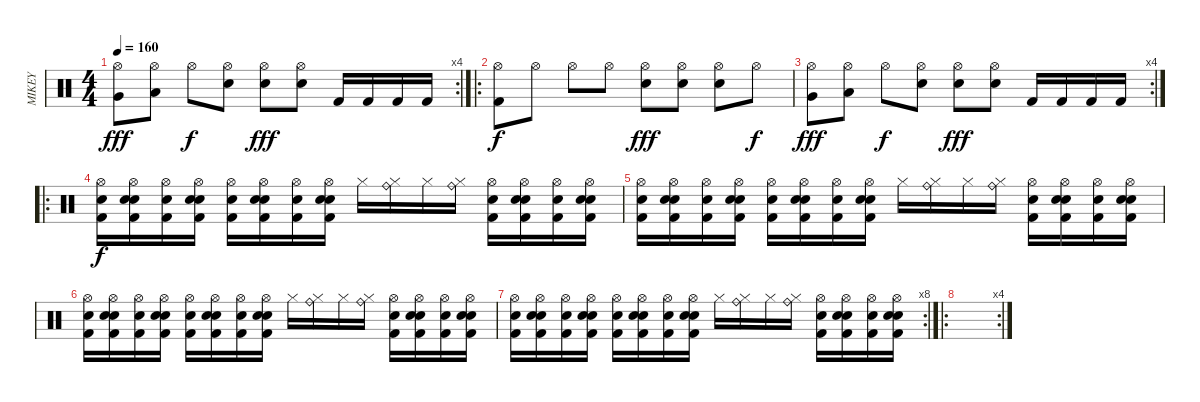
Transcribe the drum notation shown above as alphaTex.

\track ("MIKEY" "MIKEY") {instrument percussion}
\staff {score}
\articulation defaults
\rc 4
\ts (4 4)
\tempo 160
\clef neutral
\ks c
("Very Low Tom (hit)" "Hi-Hat (open)").8{dy fff} ("Low Tom (hit)" "Hi-Hat (open)").8 "Hi-Hat (open)".8{dy f} ("Snare (hit) 2" "Hi-Hat (open)").8 ("Snare (hit) 2" "Hi-Hat (open)").8{dy fff} ("Snare (hit) 2" "Hi-Hat (open)").8 "Kick (hit) 2".16 "Kick (hit) 2".16 "Kick (hit) 2".16 "Kick (hit) 2".16 |
\ro
("Kick (hit) 2" "Hi-Hat (open)").8{dy f} "Hi-Hat (open)".8 "Hi-Hat (open)".8 "Hi-Hat (open)".8 ("Snare (hit) 2" "Hi-Hat (open)").8{dy fff} ("Snare (hit) 2" "Hi-Hat (open)").8 ("Snare (hit) 2" "Hi-Hat (open)").8 "Hi-Hat (open)".8{dy f} |
\rc 4
("Very Low Tom (hit)" "Hi-Hat (open)").8{dy fff} ("Low Tom (hit)" "Hi-Hat (open)").8 "Hi-Hat (open)".8{dy f} ("Snare (hit) 2" "Hi-Hat (open)").8 ("Snare (hit) 2" "Hi-Hat (open)").8{dy fff} ("Snare (hit) 2" "Hi-Hat (open)").8 "Kick (hit) 2".16 "Kick (hit) 2".16 "Kick (hit) 2".16 "Kick (hit) 2".16 |
\ro
("Hi-Hat (open)" "Kick (hit) 2" "Electric Snare (hit)").16{dy f} ("Hi-Hat (open)" "Kick (hit) 2" "Snare (hit) 2" "Electric Snare (hit)").16 ("Hi-Hat (open)" "Kick (hit) 2" "Electric Snare (hit)").16 ("Hi-Hat (open)" "Kick (hit) 2" "Snare (hit) 2" "Electric Snare (hit)").16 ("Hi-Hat (open)" "Kick (hit) 2" "Electric Snare (hit)").16 ("Hi-Hat (open)" "Kick (hit) 2" "Snare (hit) 2" "Electric Snare (hit)").16 ("Hi-Hat (open)" "Kick (hit) 2" "Electric Snare (hit)").16 ("Hi-Hat (open)" "Kick (hit) 2" "Snare (hit) 2" "Electric Snare (hit)").16 "Hi-Hat (closed)".16 ("Ride (bell)" "Hi-Hat (closed)").16 "Hi-Hat (closed)".16 ("Ride (bell)" "Hi-Hat (closed)").16 ("Hi-Hat (open)" "Kick (hit) 2" "Electric Snare (hit)").16 ("Hi-Hat (open)" "Kick (hit) 2" "Snare (hit) 2" "Electric Snare (hit)").16 ("Hi-Hat (open)" "Kick (hit) 2" "Electric Snare (hit)").16 ("Hi-Hat (open)" "Kick (hit) 2" "Snare (hit) 2" "Electric Snare (hit)").16 |
("Hi-Hat (open)" "Kick (hit) 2" "Electric Snare (hit)").16 ("Hi-Hat (open)" "Kick (hit) 2" "Snare (hit) 2" "Electric Snare (hit)").16 ("Hi-Hat (open)" "Kick (hit) 2" "Electric Snare (hit)").16 ("Hi-Hat (open)" "Kick (hit) 2" "Snare (hit) 2" "Electric Snare (hit)").16 ("Hi-Hat (open)" "Kick (hit) 2" "Electric Snare (hit)").16 ("Hi-Hat (open)" "Kick (hit) 2" "Snare (hit) 2" "Electric Snare (hit)").16 ("Hi-Hat (open)" "Kick (hit) 2" "Electric Snare (hit)").16 ("Hi-Hat (open)" "Kick (hit) 2" "Snare (hit) 2" "Electric Snare (hit)").16 "Hi-Hat (closed)".16 ("Ride (bell)" "Hi-Hat (closed)").16 "Hi-Hat (closed)".16 ("Ride (bell)" "Hi-Hat (closed)").16 ("Hi-Hat (open)" "Kick (hit) 2" "Electric Snare (hit)").16 ("Hi-Hat (open)" "Kick (hit) 2" "Snare (hit) 2" "Electric Snare (hit)").16 ("Hi-Hat (open)" "Kick (hit) 2" "Electric Snare (hit)").16 ("Hi-Hat (open)" "Kick (hit) 2" "Snare (hit) 2" "Electric Snare (hit)").16 |
("Hi-Hat (open)" "Kick (hit) 2" "Electric Snare (hit)").16 ("Hi-Hat (open)" "Kick (hit) 2" "Snare (hit) 2" "Electric Snare (hit)").16 ("Hi-Hat (open)" "Kick (hit) 2" "Electric Snare (hit)").16 ("Hi-Hat (open)" "Kick (hit) 2" "Snare (hit) 2" "Electric Snare (hit)").16 ("Hi-Hat (open)" "Kick (hit) 2" "Electric Snare (hit)").16 ("Hi-Hat (open)" "Kick (hit) 2" "Snare (hit) 2" "Electric Snare (hit)").16 ("Hi-Hat (open)" "Kick (hit) 2" "Electric Snare (hit)").16 ("Hi-Hat (open)" "Kick (hit) 2" "Snare (hit) 2" "Electric Snare (hit)").16 "Hi-Hat (closed)".16 ("Ride (bell)" "Hi-Hat (closed)").16 "Hi-Hat (closed)".16 ("Ride (bell)" "Hi-Hat (closed)").16 ("Hi-Hat (open)" "Kick (hit) 2" "Electric Snare (hit)").16 ("Hi-Hat (open)" "Kick (hit) 2" "Snare (hit) 2" "Electric Snare (hit)").16 ("Hi-Hat (open)" "Kick (hit) 2" "Electric Snare (hit)").16 ("Hi-Hat (open)" "Kick (hit) 2" "Snare (hit) 2" "Electric Snare (hit)").16 |
\rc 8
("Hi-Hat (open)" "Kick (hit) 2" "Electric Snare (hit)").16 ("Hi-Hat (open)" "Kick (hit) 2" "Snare (hit) 2" "Electric Snare (hit)").16 ("Hi-Hat (open)" "Kick (hit) 2" "Electric Snare (hit)").16 ("Hi-Hat (open)" "Kick (hit) 2" "Snare (hit) 2" "Electric Snare (hit)").16 ("Hi-Hat (open)" "Kick (hit) 2" "Electric Snare (hit)").16 ("Hi-Hat (open)" "Kick (hit) 2" "Snare (hit) 2" "Electric Snare (hit)").16 ("Hi-Hat (open)" "Kick (hit) 2" "Electric Snare (hit)").16 ("Hi-Hat (open)" "Kick (hit) 2" "Snare (hit) 2" "Electric Snare (hit)").16 "Hi-Hat (closed)".16 ("Ride (bell)" "Hi-Hat (closed)").16 "Hi-Hat (closed)".16 ("Ride (bell)" "Hi-Hat (closed)").16 ("Hi-Hat (open)" "Kick (hit) 2" "Electric Snare (hit)").16 ("Hi-Hat (open)" "Kick (hit) 2" "Snare (hit) 2" "Electric Snare (hit)").16 ("Hi-Hat (open)" "Kick (hit) 2" "Electric Snare (hit)").16 ("Hi-Hat (open)" "Kick (hit) 2" "Snare (hit) 2" "Electric Snare (hit)").16 |
\ro
\rc 4
